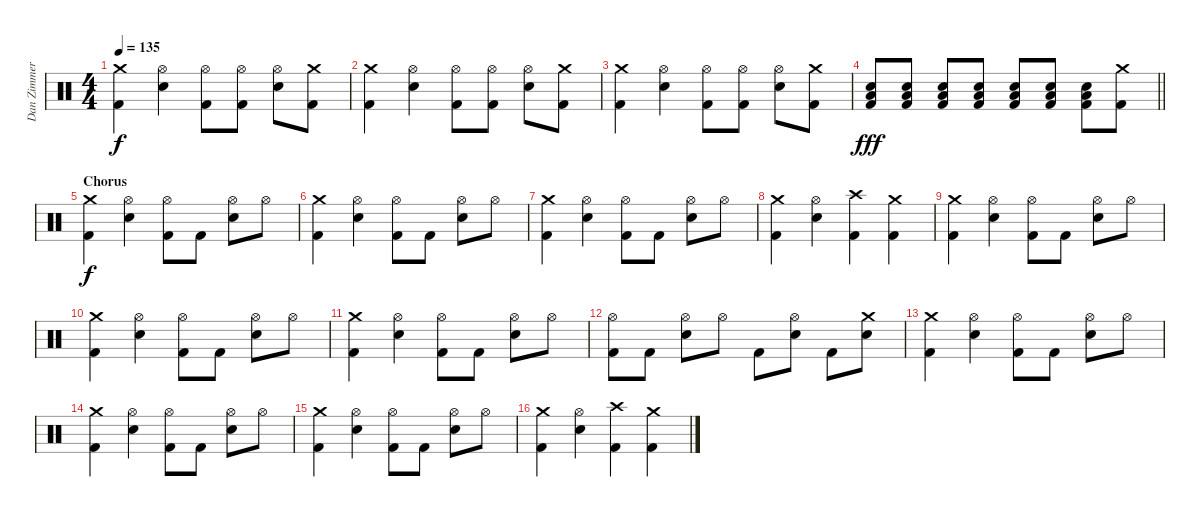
\track ("Dan Zimmermann" "Dan Zimmer") {instrument percussion}
\staff {score}
\articulation defaults
\ts (4 4)
\tempo 135
\clef neutral
\ks c
("Crash medium (hit)" "Kick (hit) 2").4{dy f} ("Hi-Hat (open)" "Electric Snare (hit)").4 ("Hi-Hat (open)" "Kick (hit) 2").8 ("Hi-Hat (open)" "Kick (hit) 2").8 ("Hi-Hat (open)" "Electric Snare (hit)").8 ("Crash medium (hit)" "Kick (hit) 2").8 |
("Crash medium (hit)" "Kick (hit) 2").4 ("Hi-Hat (open)" "Electric Snare (hit)").4 ("Hi-Hat (open)" "Kick (hit) 2").8 ("Hi-Hat (open)" "Kick (hit) 2").8 ("Hi-Hat (open)" "Electric Snare (hit)").8 ("Crash medium (hit)" "Kick (hit) 2").8 |
("Crash medium (hit)" "Kick (hit) 2").4 ("Hi-Hat (open)" "Electric Snare (hit)").4 ("Hi-Hat (open)" "Kick (hit) 2").8 ("Hi-Hat (open)" "Kick (hit) 2").8 ("Hi-Hat (open)" "Electric Snare (hit)").8 ("Crash medium (hit)" "Kick (hit) 2").8 |
\barLineRight lightlight
("Electric Snare (hit)" "Low Floor Tom (hit)" "Kick (hit) 2").8{dy fff} ("Electric Snare (hit)" "Low Floor Tom (hit)" "Kick (hit) 2").8 ("Electric Snare (hit)" "Low Floor Tom (hit)" "Kick (hit) 2").8 ("Electric Snare (hit)" "Low Floor Tom (hit)" "Kick (hit) 2").8 ("Electric Snare (hit)" "Low Floor Tom (hit)" "Kick (hit) 2").8 ("Electric Snare (hit)" "Low Floor Tom (hit)" "Kick (hit) 2").8 ("Electric Snare (hit)" "Low Floor Tom (hit)" "Kick (hit) 2").8 ("Crash medium (hit)" "Kick (hit) 2").8 |
\section ("" "Chorus")
("Crash medium (hit)" "Kick (hit) 2").4{dy f} ("Hi-Hat (open)" "Electric Snare (hit)").4 ("Hi-Hat (open)" "Kick (hit) 2").8 "Kick (hit) 2".8 ("Hi-Hat (open)" "Electric Snare (hit)").8 "Hi-Hat (open)".8 |
("Crash medium (hit)" "Kick (hit) 2").4 ("Hi-Hat (open)" "Electric Snare (hit)").4 ("Hi-Hat (open)" "Kick (hit) 2").8 "Kick (hit) 2".8 ("Hi-Hat (open)" "Electric Snare (hit)").8 "Hi-Hat (open)".8 |
("Crash medium (hit)" "Kick (hit) 2").4 ("Hi-Hat (open)" "Electric Snare (hit)").4 ("Hi-Hat (open)" "Kick (hit) 2").8 "Kick (hit) 2".8 ("Hi-Hat (open)" "Electric Snare (hit)").8 "Hi-Hat (open)".8 |
("Crash medium (hit)" "Kick (hit) 2").4 ("Hi-Hat (open)" "Electric Snare (hit)").4 ("Crash high (hit)" "Kick (hit) 2").4 ("Crash medium (hit)" "Kick (hit) 2").4 |
("Crash medium (hit)" "Kick (hit) 2").4 ("Hi-Hat (open)" "Electric Snare (hit)").4 ("Hi-Hat (open)" "Kick (hit) 2").8 "Kick (hit) 2".8 ("Hi-Hat (open)" "Electric Snare (hit)").8 "Hi-Hat (open)".8 |
("Crash medium (hit)" "Kick (hit) 2").4 ("Hi-Hat (open)" "Electric Snare (hit)").4 ("Hi-Hat (open)" "Kick (hit) 2").8 "Kick (hit) 2".8 ("Hi-Hat (open)" "Electric Snare (hit)").8 "Hi-Hat (open)".8 |
("Crash medium (hit)" "Kick (hit) 2").4 ("Hi-Hat (open)" "Electric Snare (hit)").4 ("Hi-Hat (open)" "Kick (hit) 2").8 "Kick (hit) 2".8 ("Hi-Hat (open)" "Electric Snare (hit)").8 "Hi-Hat (open)".8 |
("Hi-Hat (open)" "Kick (hit) 2").8 "Kick (hit) 2".8 ("Hi-Hat (open)" "Electric Snare (hit)").8 "Hi-Hat (open)".8 "Kick (hit) 2".8 ("Hi-Hat (open)" "Electric Snare (hit)").8 "Kick (hit) 2".8 ("Crash medium (hit)" "Electric Snare (hit)").8 |
("Crash medium (hit)" "Kick (hit) 2").4 ("Hi-Hat (open)" "Electric Snare (hit)").4 ("Hi-Hat (open)" "Kick (hit) 2").8 "Kick (hit) 2".8 ("Hi-Hat (open)" "Electric Snare (hit)").8 "Hi-Hat (open)".8 |
("Crash medium (hit)" "Kick (hit) 2").4 ("Hi-Hat (open)" "Electric Snare (hit)").4 ("Hi-Hat (open)" "Kick (hit) 2").8 "Kick (hit) 2".8 ("Hi-Hat (open)" "Electric Snare (hit)").8 "Hi-Hat (open)".8 |
("Crash medium (hit)" "Kick (hit) 2").4 ("Hi-Hat (open)" "Electric Snare (hit)").4 ("Hi-Hat (open)" "Kick (hit) 2").8 "Kick (hit) 2".8 ("Hi-Hat (open)" "Electric Snare (hit)").8 "Hi-Hat (open)".8 |
("Crash medium (hit)" "Kick (hit) 2").4 ("Hi-Hat (open)" "Electric Snare (hit)").4 ("Crash high (hit)" "Kick (hit) 2").4 ("Crash medium (hit)" "Kick (hit) 2").4
